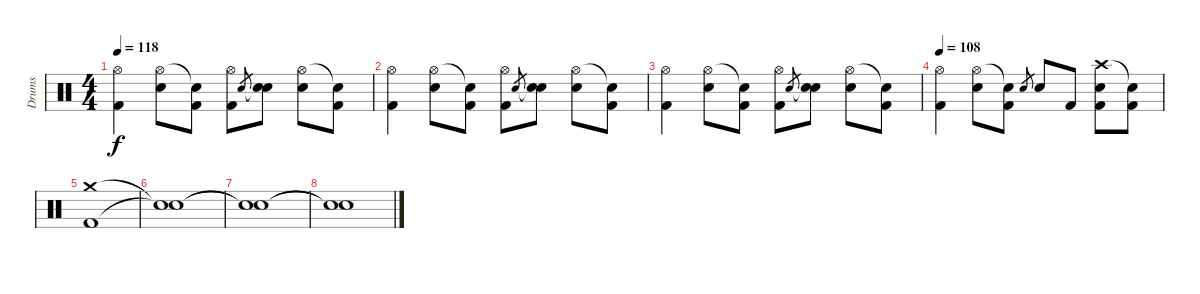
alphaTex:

\track ("Drums" "Drums") {instrument percussion}
\staff {score}
\articulation defaults
\ts (4 4)
\tempo 118
\clef neutral
\ks c
("Hi-Hat (open)" "Kick (hit) 2").4{dy f} ("Hi-Hat (open)" "Electric Snare (hit)").8 ("Snare (hit)"{t} "Kick (hit) 2").8 ("Hi-Hat (open)" "Kick (hit) 2").8 "Electric Snare (hit)".8{gr} ("Snare (hit)"{t} "Electric Snare (hit)").8 ("Hi-Hat (open)" "Electric Snare (hit)").8 ("Snare (hit)"{t} "Kick (hit) 2").8 |
("Hi-Hat (open)" "Kick (hit) 2").4 ("Hi-Hat (open)" "Electric Snare (hit)").8 ("Snare (hit)"{t} "Kick (hit) 2").8 ("Hi-Hat (open)" "Kick (hit) 2").8 "Electric Snare (hit)".8{gr} ("Snare (hit)"{t} "Electric Snare (hit)").8 ("Hi-Hat (open)" "Electric Snare (hit)").8 ("Snare (hit)"{t} "Kick (hit) 2").8 |
("Hi-Hat (open)" "Kick (hit) 2").4 ("Hi-Hat (open)" "Electric Snare (hit)").8 ("Snare (hit)"{t} "Kick (hit) 2").8 ("Hi-Hat (open)" "Kick (hit) 2").8 "Electric Snare (hit)".8{gr} ("Snare (hit)"{t} "Electric Snare (hit)").8 ("Hi-Hat (open)" "Electric Snare (hit)").8 ("Snare (hit)"{t} "Kick (hit) 2").8 |
\tempo 108
("Hi-Hat (open)" "Kick (hit) 2").4 ("Hi-Hat (open)" "Electric Snare (hit)").8 ("Snare (hit)"{t} "Kick (hit) 2").8 "Electric Snare (hit)".8{gr} "Electric Snare (hit)".8 "Kick (hit) 2".8 ("Crash high (hit)" "Electric Snare (hit)" "Kick (hit) 2").8 ("Snare (hit)"{t} "Kick (hit) 2").8 |
("Crash medium (hit)" "Kick (hit) 2").1{volume 0} |
("Snare (hit)"{t} "Snare (hit)"{t}).1 |
("Snare (hit)"{t} "Snare (hit)"{t}).1 |
("Snare (hit)"{t} "Snare (hit)"{t}).1
